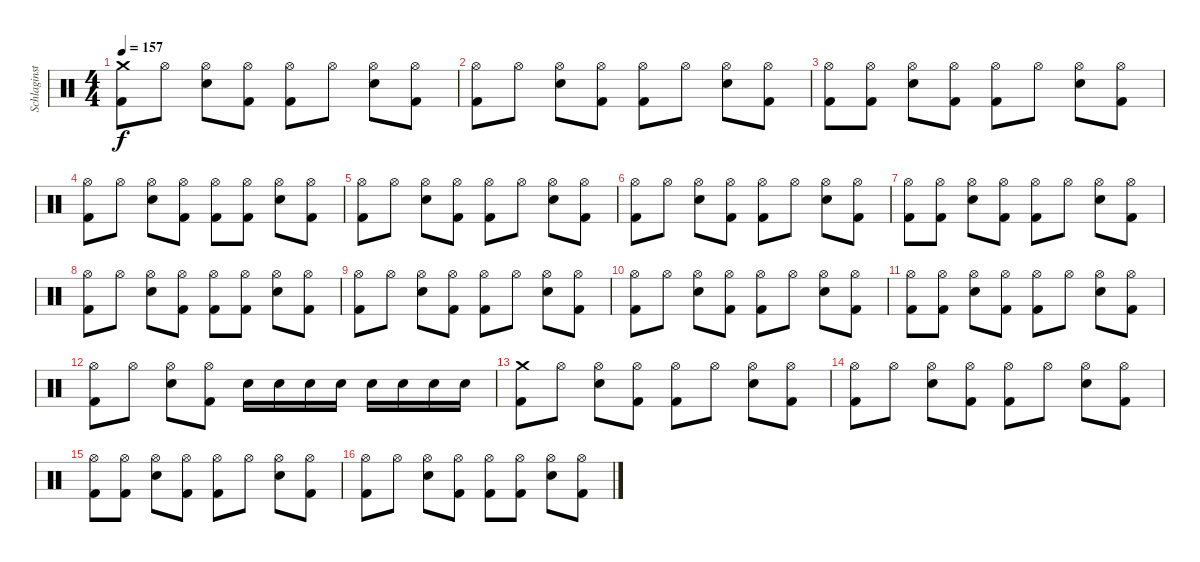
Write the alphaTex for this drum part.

\track ("Schlaginstrumente - Auswahl" "Schlaginst") {instrument percussion}
\staff {score}
\articulation defaults
\ts (4 4)
\tempo 157
\clef neutral
\ks c
("Crash medium (hit)" "Kick (hit) 2").8{dy f} "Hi-Hat (open)".8 ("Hi-Hat (open)" "Electric Snare (hit)").8 ("Hi-Hat (open)" "Kick (hit) 2").8 ("Hi-Hat (open)" "Kick (hit) 2").8 "Hi-Hat (open)".8 ("Hi-Hat (open)" "Electric Snare (hit)").8 ("Hi-Hat (open)" "Kick (hit) 2").8 |
("Hi-Hat (open)" "Kick (hit) 2").8 "Hi-Hat (open)".8 ("Hi-Hat (open)" "Electric Snare (hit)").8 ("Hi-Hat (open)" "Kick (hit) 2").8 ("Hi-Hat (open)" "Kick (hit) 2").8 "Hi-Hat (open)".8 ("Hi-Hat (open)" "Electric Snare (hit)").8 ("Hi-Hat (open)" "Kick (hit) 2").8 |
("Hi-Hat (open)" "Kick (hit) 2").8 ("Hi-Hat (open)" "Kick (hit) 2").8 ("Hi-Hat (open)" "Electric Snare (hit)").8 ("Hi-Hat (open)" "Kick (hit) 2").8 ("Hi-Hat (open)" "Kick (hit) 2").8 "Hi-Hat (open)".8 ("Hi-Hat (open)" "Electric Snare (hit)").8 ("Hi-Hat (open)" "Kick (hit) 2").8 |
("Hi-Hat (open)" "Kick (hit) 2").8 "Hi-Hat (open)".8 ("Hi-Hat (open)" "Electric Snare (hit)").8 ("Hi-Hat (open)" "Kick (hit) 2").8 ("Hi-Hat (open)" "Kick (hit) 2").8 ("Hi-Hat (open)" "Kick (hit) 2").8 ("Hi-Hat (open)" "Electric Snare (hit)").8 ("Hi-Hat (open)" "Kick (hit) 2").8 |
("Hi-Hat (open)" "Kick (hit) 2").8 "Hi-Hat (open)".8 ("Hi-Hat (open)" "Electric Snare (hit)").8 ("Hi-Hat (open)" "Kick (hit) 2").8 ("Hi-Hat (open)" "Kick (hit) 2").8 "Hi-Hat (open)".8 ("Hi-Hat (open)" "Electric Snare (hit)").8 ("Hi-Hat (open)" "Kick (hit) 2").8 |
("Hi-Hat (open)" "Kick (hit) 2").8 "Hi-Hat (open)".8 ("Hi-Hat (open)" "Electric Snare (hit)").8 ("Hi-Hat (open)" "Kick (hit) 2").8 ("Hi-Hat (open)" "Kick (hit) 2").8 "Hi-Hat (open)".8 ("Hi-Hat (open)" "Electric Snare (hit)").8 ("Hi-Hat (open)" "Kick (hit) 2").8 |
("Hi-Hat (open)" "Kick (hit) 2").8 ("Hi-Hat (open)" "Kick (hit) 2").8 ("Hi-Hat (open)" "Electric Snare (hit)").8 ("Hi-Hat (open)" "Kick (hit) 2").8 ("Hi-Hat (open)" "Kick (hit) 2").8 "Hi-Hat (open)".8 ("Hi-Hat (open)" "Electric Snare (hit)").8 ("Hi-Hat (open)" "Kick (hit) 2").8 |
("Hi-Hat (open)" "Kick (hit) 2").8 "Hi-Hat (open)".8 ("Hi-Hat (open)" "Electric Snare (hit)").8 ("Hi-Hat (open)" "Kick (hit) 2").8 ("Hi-Hat (open)" "Kick (hit) 2").8 ("Hi-Hat (open)" "Kick (hit) 2").8 ("Hi-Hat (open)" "Electric Snare (hit)").8 ("Hi-Hat (open)" "Kick (hit) 2").8 |
("Hi-Hat (open)" "Kick (hit) 2").8 "Hi-Hat (open)".8 ("Hi-Hat (open)" "Electric Snare (hit)").8 ("Hi-Hat (open)" "Kick (hit) 2").8 ("Hi-Hat (open)" "Kick (hit) 2").8 "Hi-Hat (open)".8 ("Hi-Hat (open)" "Electric Snare (hit)").8 ("Hi-Hat (open)" "Kick (hit) 2").8 |
("Hi-Hat (open)" "Kick (hit) 2").8 "Hi-Hat (open)".8 ("Hi-Hat (open)" "Electric Snare (hit)").8 ("Hi-Hat (open)" "Kick (hit) 2").8 ("Hi-Hat (open)" "Kick (hit) 2").8 "Hi-Hat (open)".8 ("Hi-Hat (open)" "Electric Snare (hit)").8 ("Hi-Hat (open)" "Kick (hit) 2").8 |
("Hi-Hat (open)" "Kick (hit) 2").8 ("Hi-Hat (open)" "Kick (hit) 2").8 ("Hi-Hat (open)" "Electric Snare (hit)").8 ("Hi-Hat (open)" "Kick (hit) 2").8 ("Hi-Hat (open)" "Kick (hit) 2").8 "Hi-Hat (open)".8 ("Hi-Hat (open)" "Electric Snare (hit)").8 ("Hi-Hat (open)" "Kick (hit) 2").8 |
("Hi-Hat (open)" "Kick (hit) 2").8 "Hi-Hat (open)".8 ("Hi-Hat (open)" "Electric Snare (hit)").8 ("Hi-Hat (open)" "Kick (hit) 2").8 "Electric Snare (hit)".16 "Electric Snare (hit)".16 "Electric Snare (hit)".16 "Electric Snare (hit)".16 "Electric Snare (hit)".16 "Electric Snare (hit)".16 "Electric Snare (hit)".16 "Electric Snare (hit)".16 |
("Crash medium (hit)" "Kick (hit) 2").8 "Hi-Hat (open)".8 ("Hi-Hat (open)" "Electric Snare (hit)").8 ("Hi-Hat (open)" "Kick (hit) 2").8 ("Hi-Hat (open)" "Kick (hit) 2").8 "Hi-Hat (open)".8 ("Hi-Hat (open)" "Electric Snare (hit)").8 ("Hi-Hat (open)" "Kick (hit) 2").8 |
("Hi-Hat (open)" "Kick (hit) 2").8 "Hi-Hat (open)".8 ("Hi-Hat (open)" "Electric Snare (hit)").8 ("Hi-Hat (open)" "Kick (hit) 2").8 ("Hi-Hat (open)" "Kick (hit) 2").8 "Hi-Hat (open)".8 ("Hi-Hat (open)" "Electric Snare (hit)").8 ("Hi-Hat (open)" "Kick (hit) 2").8 |
("Hi-Hat (open)" "Kick (hit) 2").8 ("Hi-Hat (open)" "Kick (hit) 2").8 ("Hi-Hat (open)" "Electric Snare (hit)").8 ("Hi-Hat (open)" "Kick (hit) 2").8 ("Hi-Hat (open)" "Kick (hit) 2").8 "Hi-Hat (open)".8 ("Hi-Hat (open)" "Electric Snare (hit)").8 ("Hi-Hat (open)" "Kick (hit) 2").8 |
("Hi-Hat (open)" "Kick (hit) 2").8 "Hi-Hat (open)".8 ("Hi-Hat (open)" "Electric Snare (hit)").8 ("Hi-Hat (open)" "Kick (hit) 2").8 ("Hi-Hat (open)" "Kick (hit) 2").8 ("Hi-Hat (open)" "Kick (hit) 2").8 ("Hi-Hat (open)" "Electric Snare (hit)").8 ("Hi-Hat (open)" "Kick (hit) 2").8
